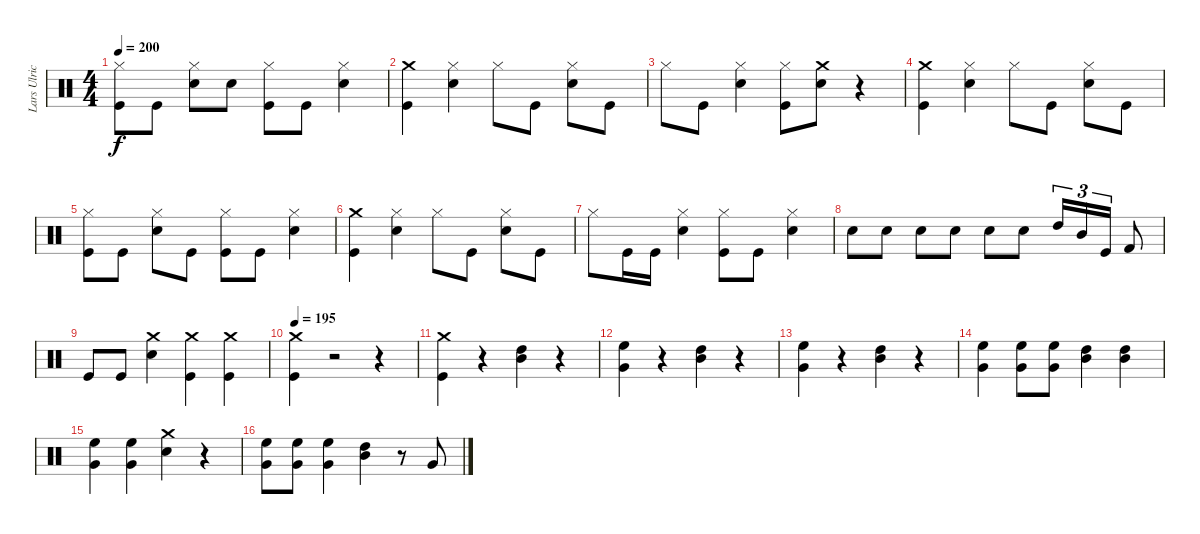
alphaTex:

\track ("Lars Ulrich (Drums)" "Lars Ulric") {instrument percussion}
\staff {score}
\articulation defaults
\ts (4 4)
\tempo 200
\clef neutral
\ks c
("Hi-Hat (closed)" "Kick (hit)").8{dy f} "Kick (hit)".8 ("Snare (hit) 2" "Hi-Hat (closed)").8 "Snare (hit) 2".8 ("Hi-Hat (closed)" "Kick (hit)").8 "Kick (hit)".8 ("Snare (hit) 2" "Hi-Hat (closed)").4 |
("Kick (hit)" "Crash medium (hit)").4 ("Hi-Hat (closed)" "Snare (hit) 2").4 "Hi-Hat (closed)".8 "Kick (hit)".8 ("Snare (hit) 2" "Hi-Hat (closed)").8 "Kick (hit)".8 |
"Hi-Hat (closed)".8 "Kick (hit)".8 ("Snare (hit) 2" "Hi-Hat (closed)").4 ("Kick (hit)" "Hi-Hat (closed)").8 ("Snare (hit) 2" "Crash medium (hit)").8 r.4 |
("Kick (hit)" "Crash medium (hit)").4 ("Hi-Hat (closed)" "Snare (hit) 2").4 "Hi-Hat (closed)".8 "Kick (hit)".8 ("Snare (hit) 2" "Hi-Hat (closed)").8 "Kick (hit)".8 |
("Kick (hit)" "Hi-Hat (closed)").8 "Kick (hit)".8 ("Snare (hit) 2" "Hi-Hat (closed)").8 "Kick (hit)".8 ("Kick (hit)" "Hi-Hat (closed)").8 "Kick (hit)".8 ("Snare (hit) 2" "Hi-Hat (closed)").4 |
("Kick (hit)" "Crash medium (hit)").4 ("Hi-Hat (closed)" "Snare (hit) 2").4 "Hi-Hat (closed)".8 "Kick (hit)".8 ("Snare (hit) 2" "Hi-Hat (closed)").8 "Kick (hit)".8 |
"Hi-Hat (closed)".8 "Kick (hit)".16 "Kick (hit)".16 ("Snare (hit) 2" "Hi-Hat (closed)").4 ("Kick (hit)" "Hi-Hat (closed)").8 "Kick (hit)".8 ("Snare (hit) 2" "Hi-Hat (closed)").4 |
"Snare (hit) 2".8 "Snare (hit) 2".8 "Snare (hit) 2".8 "Snare (hit) 2".8 "Snare (hit) 2".8 "Snare (hit) 2".8 "High Tom (hit)".16{tu (3 2)} "Mid Tom (hit)".16{tu (3 2)} "Kick (hit)".16{tu (3 2)} "Kick (hit) 2".8 |
"Kick (hit)".8 "Kick (hit)".8 ("Snare (hit) 2" "Crash medium (hit)").4 ("Kick (hit)" "Crash medium (hit)").4 ("Kick (hit)" "Crash medium (hit)").4 |
\tempo 195
("Crash medium (hit)" "Kick (hit)").4 r.2 r.4 |
("Kick (hit)" "Crash medium (hit)").4 r.4 ("High Tom (hit)" "Mid Tom (hit)").4 r.4 |
("Very Low Tom (hit)" "High Floor Tom (hit)").4 r.4 ("Mid Tom (hit)" "High Tom (hit)").4 r.4 |
("Very Low Tom (hit)" "High Floor Tom (hit)").4 r.4 ("Mid Tom (hit)" "High Tom (hit)").4 r.4 |
("High Floor Tom (hit)" "Very Low Tom (hit)").4 ("High Floor Tom (hit)" "Very Low Tom (hit)").8 ("High Floor Tom (hit)" "Very Low Tom (hit)").8 ("Mid Tom (hit)" "High Tom (hit)").4 ("Mid Tom (hit)" "High Tom (hit)").4 |
("Very Low Tom (hit)" "High Floor Tom (hit)").4 ("Very Low Tom (hit)" "High Floor Tom (hit)").4 ("Crash medium (hit)" "Snare (hit) 2").4 r.4 |
("Very Low Tom (hit)" "High Floor Tom (hit)").8 ("Very Low Tom (hit)" "High Floor Tom (hit)").8 ("Very Low Tom (hit)" "High Floor Tom (hit)").4 ("Mid Tom (hit)" "High Tom (hit)").4 r.8 "Very Low Tom (hit)".8
